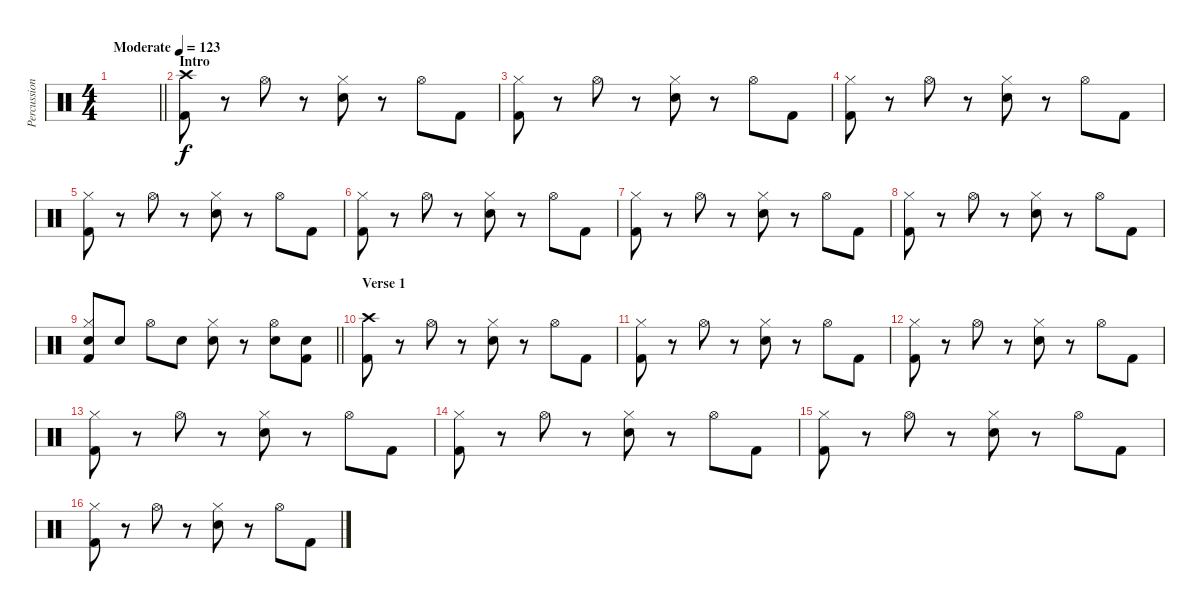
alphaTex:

\track ("Percussion" "Percussion") {instrument percussion}
\staff {score}
\articulation defaults
\ts (4 4)
\tempo (123 "Moderate")
\clef neutral
\barLineRight lightlight
\ks c
|
\section ("" "Intro")
("Crash high (hit)" "Kick (hit) 2").8 r.8 "Hi-Hat (open)".8 r.8 ("Hi-Hat (closed)" "Snare (hit) 2").8 r.8 "Hi-Hat (open)".8 "Kick (hit) 2".8 |
("Hi-Hat (closed)" "Kick (hit) 2").8 r.8 "Hi-Hat (open)".8 r.8 ("Hi-Hat (closed)" "Snare (hit) 2").8 r.8 "Hi-Hat (open)".8 "Kick (hit) 2".8 |
("Hi-Hat (closed)" "Kick (hit) 2").8 r.8 "Hi-Hat (open)".8 r.8 ("Hi-Hat (closed)" "Snare (hit) 2").8 r.8 "Hi-Hat (open)".8 "Kick (hit) 2".8 |
("Hi-Hat (closed)" "Kick (hit) 2").8 r.8 "Hi-Hat (open)".8 r.8 ("Hi-Hat (closed)" "Snare (hit) 2").8 r.8 "Hi-Hat (open)".8 "Kick (hit) 2".8 |
("Hi-Hat (closed)" "Kick (hit) 2").8 r.8 "Hi-Hat (open)".8 r.8 ("Hi-Hat (closed)" "Snare (hit) 2").8 r.8 "Hi-Hat (open)".8 "Kick (hit) 2".8 |
("Hi-Hat (closed)" "Kick (hit) 2").8 r.8 "Hi-Hat (open)".8 r.8 ("Hi-Hat (closed)" "Snare (hit) 2").8 r.8 "Hi-Hat (open)".8 "Kick (hit) 2".8 |
("Hi-Hat (closed)" "Kick (hit) 2").8 r.8 "Hi-Hat (open)".8 r.8 ("Hi-Hat (closed)" "Snare (hit) 2").8 r.8 "Hi-Hat (open)".8 "Kick (hit) 2".8 |
\barLineRight lightlight
("Hi-Hat (closed)" "Snare (hit) 2" "Kick (hit) 2").8 "Snare (hit) 2".8 "Hi-Hat (open)".8 "Snare (hit) 2".8 ("Hi-Hat (closed)" "Snare (hit) 2").8 r.8 ("Hi-Hat (open)" "Snare (hit) 2").8 ("Snare (hit) 2" "Kick (hit) 2").8 |
\section ("" "Verse 1")
("Crash high (hit)" "Kick (hit) 2").8 r.8 "Hi-Hat (open)".8 r.8 ("Hi-Hat (closed)" "Snare (hit) 2").8 r.8 "Hi-Hat (open)".8 "Kick (hit) 2".8 |
("Hi-Hat (closed)" "Kick (hit) 2").8 r.8 "Hi-Hat (open)".8 r.8 ("Hi-Hat (closed)" "Snare (hit) 2").8 r.8 "Hi-Hat (open)".8 "Kick (hit) 2".8 |
("Hi-Hat (closed)" "Kick (hit) 2").8 r.8 "Hi-Hat (open)".8 r.8 ("Hi-Hat (closed)" "Snare (hit) 2").8 r.8 "Hi-Hat (open)".8 "Kick (hit) 2".8 |
("Hi-Hat (closed)" "Kick (hit) 2").8 r.8 "Hi-Hat (open)".8 r.8 ("Hi-Hat (closed)" "Snare (hit) 2").8 r.8 "Hi-Hat (open)".8 "Kick (hit) 2".8 |
("Hi-Hat (closed)" "Kick (hit) 2").8 r.8 "Hi-Hat (open)".8 r.8 ("Hi-Hat (closed)" "Snare (hit) 2").8 r.8 "Hi-Hat (open)".8 "Kick (hit) 2".8 |
("Hi-Hat (closed)" "Kick (hit) 2").8 r.8 "Hi-Hat (open)".8 r.8 ("Hi-Hat (closed)" "Snare (hit) 2").8 r.8 "Hi-Hat (open)".8 "Kick (hit) 2".8 |
("Hi-Hat (closed)" "Kick (hit) 2").8 r.8 "Hi-Hat (open)".8 r.8 ("Hi-Hat (closed)" "Snare (hit) 2").8 r.8 "Hi-Hat (open)".8 "Kick (hit) 2".8
